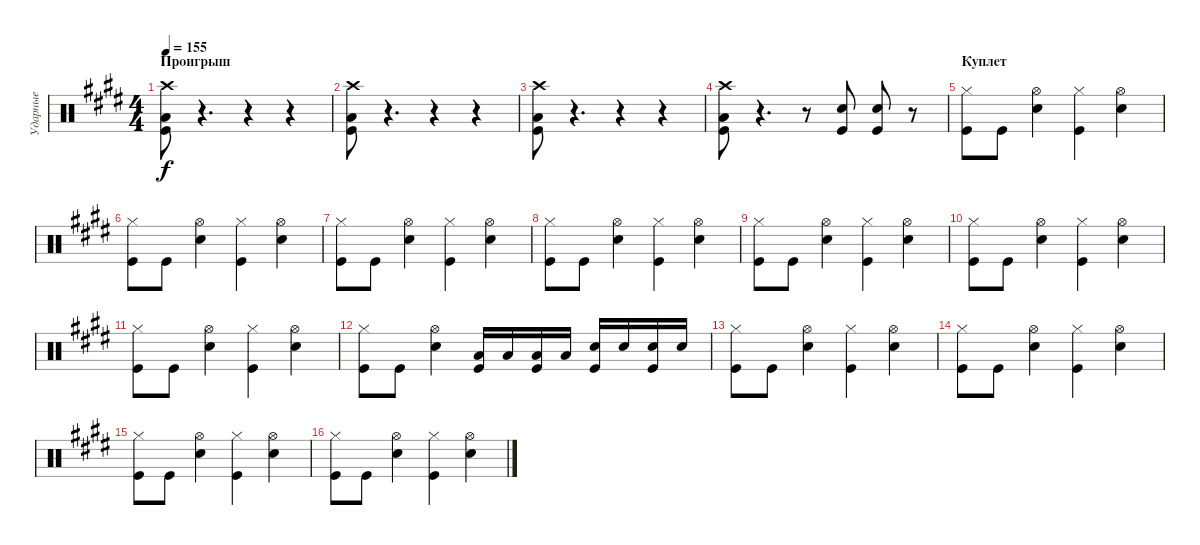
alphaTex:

\track ("Ударные" "Ударные") {instrument percussion}
\staff {score}
\articulation defaults
\ts (4 4)
\section ("" "Проигрыш")
\tempo 155
\clef neutral
\ks e
("Crash high (hit)" "Low Tom (hit)" "Kick (hit)").8{dy f} r.4{d} r.4 r.4 |
("Crash high (hit)" "Low Tom (hit)" "Kick (hit)").8 r.4{d} r.4 r.4 |
("Crash high (hit)" "Low Tom (hit)" "Kick (hit)").8 r.4{d} r.4 r.4 |
("Crash high (hit)" "Low Tom (hit)" "Kick (hit)").8 r.4{d} r.8 ("Snare (hit) 2" "Kick (hit)").8 ("Snare (hit) 2" "Kick (hit)").8 r.8 |
\section ("" "Куплет")
("Hi-Hat (closed)" "Kick (hit)").8 "Kick (hit)".8 ("Hi-Hat (open)" "Snare (hit) 2").4 ("Hi-Hat (closed)" "Kick (hit)").4 ("Hi-Hat (open)" "Snare (hit) 2").4 |
("Hi-Hat (closed)" "Kick (hit)").8 "Kick (hit)".8 ("Hi-Hat (open)" "Snare (hit) 2").4 ("Hi-Hat (closed)" "Kick (hit)").4 ("Hi-Hat (open)" "Snare (hit) 2").4 |
("Hi-Hat (closed)" "Kick (hit)").8 "Kick (hit)".8 ("Hi-Hat (open)" "Snare (hit) 2").4 ("Hi-Hat (closed)" "Kick (hit)").4 ("Hi-Hat (open)" "Snare (hit) 2").4 |
("Hi-Hat (closed)" "Kick (hit)").8 "Kick (hit)".8 ("Hi-Hat (open)" "Snare (hit) 2").4 ("Hi-Hat (closed)" "Kick (hit)").4 ("Hi-Hat (open)" "Snare (hit) 2").4 |
("Hi-Hat (closed)" "Kick (hit)").8 "Kick (hit)".8 ("Hi-Hat (open)" "Snare (hit) 2").4 ("Hi-Hat (closed)" "Kick (hit)").4 ("Hi-Hat (open)" "Snare (hit) 2").4 |
("Hi-Hat (closed)" "Kick (hit)").8 "Kick (hit)".8 ("Hi-Hat (open)" "Snare (hit) 2").4 ("Hi-Hat (closed)" "Kick (hit)").4 ("Hi-Hat (open)" "Snare (hit) 2").4 |
("Hi-Hat (closed)" "Kick (hit)").8 "Kick (hit)".8 ("Hi-Hat (open)" "Snare (hit) 2").4 ("Hi-Hat (closed)" "Kick (hit)").4 ("Hi-Hat (open)" "Snare (hit) 2").4 |
("Hi-Hat (closed)" "Kick (hit)").8 "Kick (hit)".8 ("Hi-Hat (open)" "Snare (hit) 2").4 ("Low Tom (hit)" "Kick (hit)").16 "Low Tom (hit)".16 ("Low Tom (hit)" "Kick (hit)").16 "Low Tom (hit)".16 ("Snare (hit) 2" "Kick (hit)").16 "Snare (hit) 2".16 ("Snare (hit) 2" "Kick (hit)").16 "Snare (hit) 2".16 |
("Hi-Hat (closed)" "Kick (hit)").8 "Kick (hit)".8 ("Hi-Hat (open)" "Snare (hit) 2").4 ("Hi-Hat (closed)" "Kick (hit)").4 ("Hi-Hat (open)" "Snare (hit) 2").4 |
("Hi-Hat (closed)" "Kick (hit)").8 "Kick (hit)".8 ("Hi-Hat (open)" "Snare (hit) 2").4 ("Hi-Hat (closed)" "Kick (hit)").4 ("Hi-Hat (open)" "Snare (hit) 2").4 |
("Hi-Hat (closed)" "Kick (hit)").8 "Kick (hit)".8 ("Hi-Hat (open)" "Snare (hit) 2").4 ("Hi-Hat (closed)" "Kick (hit)").4 ("Hi-Hat (open)" "Snare (hit) 2").4 |
("Hi-Hat (closed)" "Kick (hit)").8 "Kick (hit)".8 ("Hi-Hat (open)" "Snare (hit) 2").4 ("Hi-Hat (closed)" "Kick (hit)").4 ("Hi-Hat (open)" "Snare (hit) 2").4
